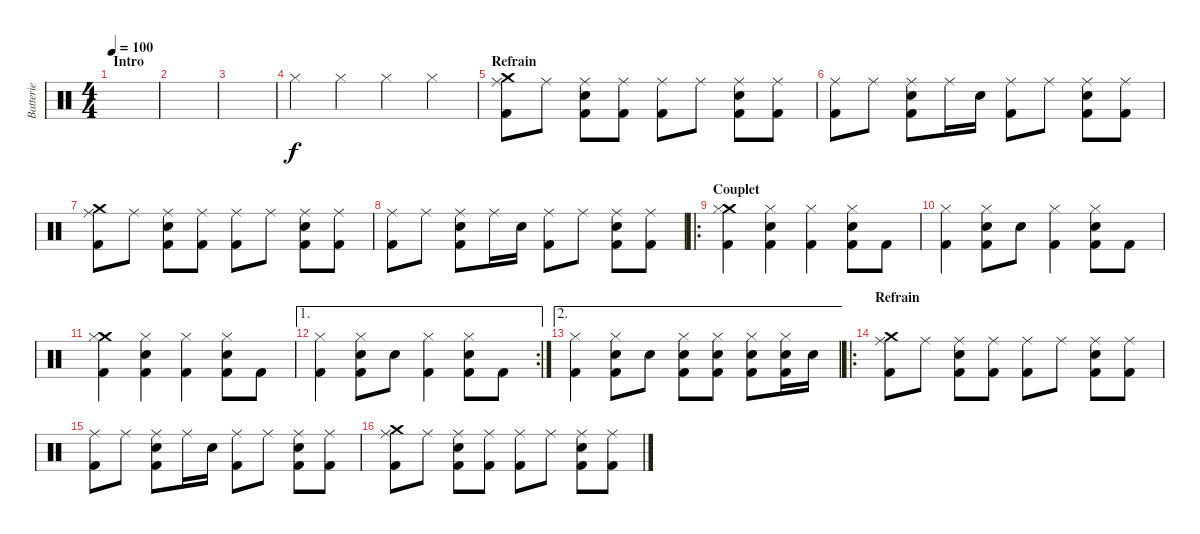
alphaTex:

\track ("Batterie" "Batterie") {instrument percussion}
\staff {score}
\articulation defaults
\ts (4 4)
\section ("" "Intro")
\tempo 100
\clef neutral
\ks c
|
|
|
"Hi-Hat (closed)".4 "Hi-Hat (closed)".4 "Hi-Hat (closed)".4 "Hi-Hat (closed)".4 |
\section ("" "Refrain")
("Crash medium (hit)" "Ride (middle)" "Kick (hit) 2").8 "Ride (middle)".8 ("Ride (middle)" "Snare (hit) 2" "Kick (hit) 2").8 ("Ride (middle)" "Kick (hit) 2").8 ("Ride (middle)" "Kick (hit) 2").8 "Ride (middle)".8 ("Ride (middle)" "Snare (hit) 2" "Kick (hit) 2").8 ("Ride (middle)" "Kick (hit) 2").8 |
("Ride (middle)" "Kick (hit) 2").8 "Ride (middle)".8 ("Ride (middle)" "Snare (hit) 2" "Kick (hit) 2").8 "Ride (middle)".16 "Snare (hit) 2".16 ("Ride (middle)" "Kick (hit) 2").8 "Ride (middle)".8 ("Ride (middle)" "Snare (hit) 2" "Kick (hit) 2").8 ("Ride (middle)" "Kick (hit) 2").8 |
("Crash medium (hit)" "Ride (middle)" "Kick (hit) 2").8 "Ride (middle)".8 ("Ride (middle)" "Snare (hit) 2" "Kick (hit) 2").8 ("Ride (middle)" "Kick (hit) 2").8 ("Ride (middle)" "Kick (hit) 2").8 "Ride (middle)".8 ("Ride (middle)" "Snare (hit) 2" "Kick (hit) 2").8 ("Ride (middle)" "Kick (hit) 2").8 |
("Ride (middle)" "Kick (hit) 2").8 "Ride (middle)".8 ("Ride (middle)" "Snare (hit) 2" "Kick (hit) 2").8 "Ride (middle)".16 "Snare (hit) 2".16 ("Ride (middle)" "Kick (hit) 2").8 "Ride (middle)".8 ("Ride (middle)" "Snare (hit) 2" "Kick (hit) 2").8 ("Ride (middle)" "Kick (hit) 2").8 |
\ro
\section ("" "Couplet")
("Crash medium (hit)" "Hi-Hat (closed)" "Kick (hit) 2").4 ("Hi-Hat (closed)" "Snare (hit) 2" "Kick (hit) 2").4 ("Hi-Hat (closed)" "Kick (hit) 2").4 ("Hi-Hat (closed)" "Snare (hit) 2" "Kick (hit) 2").8 "Kick (hit) 2".8 |
("Hi-Hat (closed)" "Kick (hit) 2").4 ("Hi-Hat (closed)" "Snare (hit) 2" "Kick (hit) 2").8 "Snare (hit) 2".8 ("Hi-Hat (closed)" "Kick (hit) 2").4 ("Hi-Hat (closed)" "Snare (hit) 2" "Kick (hit) 2").8 "Kick (hit) 2".8 |
("Crash medium (hit)" "Hi-Hat (closed)" "Kick (hit) 2").4 ("Hi-Hat (closed)" "Snare (hit) 2" "Kick (hit) 2").4 ("Hi-Hat (closed)" "Kick (hit) 2").4 ("Hi-Hat (closed)" "Snare (hit) 2" "Kick (hit) 2").8 "Kick (hit) 2".8 |
\ae 1
\rc 2
("Hi-Hat (closed)" "Kick (hit) 2").4 ("Hi-Hat (closed)" "Snare (hit) 2" "Kick (hit) 2").8 "Snare (hit) 2".8 ("Hi-Hat (closed)" "Kick (hit) 2").4 ("Hi-Hat (closed)" "Snare (hit) 2" "Kick (hit) 2").8 "Kick (hit) 2".8 |
\ae 2
("Hi-Hat (closed)" "Kick (hit) 2").4 ("Hi-Hat (closed)" "Snare (hit) 2" "Kick (hit) 2").8 "Snare (hit) 2".8 ("Hi-Hat (closed)" "Snare (hit) 2" "Kick (hit) 2").8 ("Hi-Hat (closed)" "Snare (hit) 2" "Kick (hit) 2").8 ("Hi-Hat (closed)" "Snare (hit) 2" "Kick (hit) 2").8 ("Hi-Hat (closed)" "Snare (hit) 2" "Kick (hit) 2").16 "Snare (hit) 2".16 |
\ro
\section ("" "Refrain")
("Crash medium (hit)" "Ride (middle)" "Kick (hit) 2").8 "Ride (middle)".8 ("Ride (middle)" "Snare (hit) 2" "Kick (hit) 2").8 ("Ride (middle)" "Kick (hit) 2").8 ("Ride (middle)" "Kick (hit) 2").8 "Ride (middle)".8 ("Ride (middle)" "Snare (hit) 2" "Kick (hit) 2").8 ("Ride (middle)" "Kick (hit) 2").8 |
("Ride (middle)" "Kick (hit) 2").8 "Ride (middle)".8 ("Ride (middle)" "Snare (hit) 2" "Kick (hit) 2").8 "Ride (middle)".16 "Snare (hit) 2".16 ("Ride (middle)" "Kick (hit) 2").8 "Ride (middle)".8 ("Ride (middle)" "Snare (hit) 2" "Kick (hit) 2").8 ("Ride (middle)" "Kick (hit) 2").8 |
("Crash medium (hit)" "Ride (middle)" "Kick (hit) 2").8 "Ride (middle)".8 ("Ride (middle)" "Snare (hit) 2" "Kick (hit) 2").8 ("Ride (middle)" "Kick (hit) 2").8 ("Ride (middle)" "Kick (hit) 2").8 "Ride (middle)".8 ("Ride (middle)" "Snare (hit) 2" "Kick (hit) 2").8 ("Ride (middle)" "Kick (hit) 2").8
